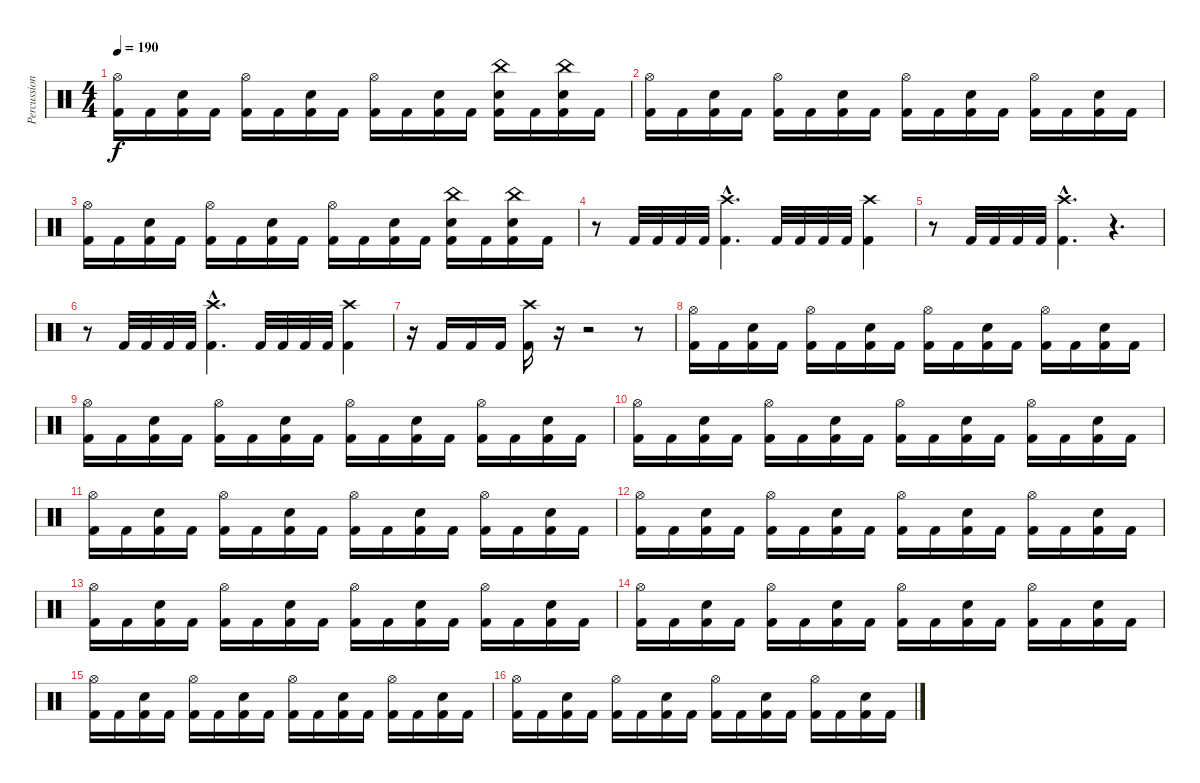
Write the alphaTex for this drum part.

\track ("Percussion" "Percussion") {instrument percussion}
\staff {score}
\articulation defaults
\ts (4 4)
\tempo 190
\clef neutral
\ks c
("Hi-Hat (open)" "Kick (hit) 2").16{dy f} "Kick (hit) 2".16 ("Snare (hit) 2" "Kick (hit) 2").16 "Kick (hit) 2".16 ("Hi-Hat (open)" "Kick (hit) 2").16 "Kick (hit) 2".16 ("Snare (hit) 2" "Kick (hit) 2").16 "Kick (hit) 2".16 ("Hi-Hat (open)" "Kick (hit) 2").16 "Kick (hit) 2".16 ("Snare (hit) 2" "Kick (hit) 2").16 "Kick (hit) 2".16 ("China (hit)" "Snare (hit) 2" "Kick (hit) 2").16 "Kick (hit) 2".16 ("China (hit)" "Snare (hit) 2" "Kick (hit) 2").16 "Kick (hit) 2".16 |
("Hi-Hat (open)" "Kick (hit) 2").16 "Kick (hit) 2".16 ("Snare (hit) 2" "Kick (hit) 2").16 "Kick (hit) 2".16 ("Hi-Hat (open)" "Kick (hit) 2").16 "Kick (hit) 2".16 ("Snare (hit) 2" "Kick (hit) 2").16 "Kick (hit) 2".16 ("Hi-Hat (open)" "Kick (hit) 2").16 "Kick (hit) 2".16 ("Snare (hit) 2" "Kick (hit) 2").16 "Kick (hit) 2".16 ("Hi-Hat (open)" "Kick (hit) 2").16 "Kick (hit) 2".16 ("Snare (hit) 2" "Kick (hit) 2").16 "Kick (hit) 2".16 |
("Hi-Hat (open)" "Kick (hit) 2").16 "Kick (hit) 2".16 ("Snare (hit) 2" "Kick (hit) 2").16 "Kick (hit) 2".16 ("Hi-Hat (open)" "Kick (hit) 2").16 "Kick (hit) 2".16 ("Snare (hit) 2" "Kick (hit) 2").16 "Kick (hit) 2".16 ("Hi-Hat (open)" "Kick (hit) 2").16 "Kick (hit) 2".16 ("Snare (hit) 2" "Kick (hit) 2").16 "Kick (hit) 2".16 ("China (hit)" "Snare (hit) 2" "Kick (hit) 2").16 "Kick (hit) 2".16 ("China (hit)" "Snare (hit) 2" "Kick (hit) 2").16 "Kick (hit) 2".16 |
r.8 "Kick (hit) 2".32 "Kick (hit) 2".32 "Kick (hit) 2".32 "Kick (hit) 2".32 ("Crash high (hit)"{hac} "Kick (hit) 2"{hac}).4{d} "Kick (hit) 2".32 "Kick (hit) 2".32 "Kick (hit) 2".32 "Kick (hit) 2".32 ("Crash high (hit)" "Kick (hit) 2").4 |
r.8 "Kick (hit) 2".32 "Kick (hit) 2".32 "Kick (hit) 2".32 "Kick (hit) 2".32 ("Crash high (hit)"{hac} "Kick (hit) 2"{hac}).4{d} r.4{d} |
r.8 "Kick (hit) 2".32 "Kick (hit) 2".32 "Kick (hit) 2".32 "Kick (hit) 2".32 ("Crash high (hit)"{hac} "Kick (hit) 2"{hac}).4{d} "Kick (hit) 2".32 "Kick (hit) 2".32 "Kick (hit) 2".32 "Kick (hit) 2".32 ("Crash high (hit)" "Kick (hit) 2").4 |
r.16 "Kick (hit) 2".16 "Kick (hit) 2".16 "Kick (hit) 2".16 ("Crash high (hit)" "Kick (hit) 2").16 r.16 r.2 r.8 |
("Hi-Hat (open)" "Kick (hit) 2").16 "Kick (hit) 2".16 ("Snare (hit) 2" "Kick (hit) 2").16 "Kick (hit) 2".16 ("Hi-Hat (open)" "Kick (hit) 2").16 "Kick (hit) 2".16 ("Snare (hit) 2" "Kick (hit) 2").16 "Kick (hit) 2".16 ("Hi-Hat (open)" "Kick (hit) 2").16 "Kick (hit) 2".16 ("Snare (hit) 2" "Kick (hit) 2").16 "Kick (hit) 2".16 ("Hi-Hat (open)" "Kick (hit) 2").16 "Kick (hit) 2".16 ("Snare (hit) 2" "Kick (hit) 2").16 "Kick (hit) 2".16 |
("Hi-Hat (open)" "Kick (hit) 2").16 "Kick (hit) 2".16 ("Snare (hit) 2" "Kick (hit) 2").16 "Kick (hit) 2".16 ("Hi-Hat (open)" "Kick (hit) 2").16 "Kick (hit) 2".16 ("Snare (hit) 2" "Kick (hit) 2").16 "Kick (hit) 2".16 ("Hi-Hat (open)" "Kick (hit) 2").16 "Kick (hit) 2".16 ("Snare (hit) 2" "Kick (hit) 2").16 "Kick (hit) 2".16 ("Hi-Hat (open)" "Kick (hit) 2").16 "Kick (hit) 2".16 ("Snare (hit) 2" "Kick (hit) 2").16 "Kick (hit) 2".16 |
("Hi-Hat (open)" "Kick (hit) 2").16 "Kick (hit) 2".16 ("Snare (hit) 2" "Kick (hit) 2").16 "Kick (hit) 2".16 ("Hi-Hat (open)" "Kick (hit) 2").16 "Kick (hit) 2".16 ("Snare (hit) 2" "Kick (hit) 2").16 "Kick (hit) 2".16 ("Hi-Hat (open)" "Kick (hit) 2").16 "Kick (hit) 2".16 ("Snare (hit) 2" "Kick (hit) 2").16 "Kick (hit) 2".16 ("Hi-Hat (open)" "Kick (hit) 2").16 "Kick (hit) 2".16 ("Snare (hit) 2" "Kick (hit) 2").16 "Kick (hit) 2".16 |
("Hi-Hat (open)" "Kick (hit) 2").16 "Kick (hit) 2".16 ("Snare (hit) 2" "Kick (hit) 2").16 "Kick (hit) 2".16 ("Hi-Hat (open)" "Kick (hit) 2").16 "Kick (hit) 2".16 ("Snare (hit) 2" "Kick (hit) 2").16 "Kick (hit) 2".16 ("Hi-Hat (open)" "Kick (hit) 2").16 "Kick (hit) 2".16 ("Snare (hit) 2" "Kick (hit) 2").16 "Kick (hit) 2".16 ("Hi-Hat (open)" "Kick (hit) 2").16 "Kick (hit) 2".16 ("Snare (hit) 2" "Kick (hit) 2").16 "Kick (hit) 2".16 |
("Hi-Hat (open)" "Kick (hit) 2").16 "Kick (hit) 2".16 ("Snare (hit) 2" "Kick (hit) 2").16 "Kick (hit) 2".16 ("Hi-Hat (open)" "Kick (hit) 2").16 "Kick (hit) 2".16 ("Snare (hit) 2" "Kick (hit) 2").16 "Kick (hit) 2".16 ("Hi-Hat (open)" "Kick (hit) 2").16 "Kick (hit) 2".16 ("Snare (hit) 2" "Kick (hit) 2").16 "Kick (hit) 2".16 ("Hi-Hat (open)" "Kick (hit) 2").16 "Kick (hit) 2".16 ("Snare (hit) 2" "Kick (hit) 2").16 "Kick (hit) 2".16 |
("Hi-Hat (open)" "Kick (hit) 2").16 "Kick (hit) 2".16 ("Snare (hit) 2" "Kick (hit) 2").16 "Kick (hit) 2".16 ("Hi-Hat (open)" "Kick (hit) 2").16 "Kick (hit) 2".16 ("Snare (hit) 2" "Kick (hit) 2").16 "Kick (hit) 2".16 ("Hi-Hat (open)" "Kick (hit) 2").16 "Kick (hit) 2".16 ("Snare (hit) 2" "Kick (hit) 2").16 "Kick (hit) 2".16 ("Hi-Hat (open)" "Kick (hit) 2").16 "Kick (hit) 2".16 ("Snare (hit) 2" "Kick (hit) 2").16 "Kick (hit) 2".16 |
("Hi-Hat (open)" "Kick (hit) 2").16 "Kick (hit) 2".16 ("Snare (hit) 2" "Kick (hit) 2").16 "Kick (hit) 2".16 ("Hi-Hat (open)" "Kick (hit) 2").16 "Kick (hit) 2".16 ("Snare (hit) 2" "Kick (hit) 2").16 "Kick (hit) 2".16 ("Hi-Hat (open)" "Kick (hit) 2").16 "Kick (hit) 2".16 ("Snare (hit) 2" "Kick (hit) 2").16 "Kick (hit) 2".16 ("Hi-Hat (open)" "Kick (hit) 2").16 "Kick (hit) 2".16 ("Snare (hit) 2" "Kick (hit) 2").16 "Kick (hit) 2".16 |
("Hi-Hat (open)" "Kick (hit) 2").16 "Kick (hit) 2".16 ("Snare (hit) 2" "Kick (hit) 2").16 "Kick (hit) 2".16 ("Hi-Hat (open)" "Kick (hit) 2").16 "Kick (hit) 2".16 ("Snare (hit) 2" "Kick (hit) 2").16 "Kick (hit) 2".16 ("Hi-Hat (open)" "Kick (hit) 2").16 "Kick (hit) 2".16 ("Snare (hit) 2" "Kick (hit) 2").16 "Kick (hit) 2".16 ("Hi-Hat (open)" "Kick (hit) 2").16 "Kick (hit) 2".16 ("Snare (hit) 2" "Kick (hit) 2").16 "Kick (hit) 2".16 |
("Hi-Hat (open)" "Kick (hit) 2").16 "Kick (hit) 2".16 ("Snare (hit) 2" "Kick (hit) 2").16 "Kick (hit) 2".16 ("Hi-Hat (open)" "Kick (hit) 2").16 "Kick (hit) 2".16 ("Snare (hit) 2" "Kick (hit) 2").16 "Kick (hit) 2".16 ("Hi-Hat (open)" "Kick (hit) 2").16 "Kick (hit) 2".16 ("Snare (hit) 2" "Kick (hit) 2").16 "Kick (hit) 2".16 ("Hi-Hat (open)" "Kick (hit) 2").16 "Kick (hit) 2".16 ("Snare (hit) 2" "Kick (hit) 2").16 "Kick (hit) 2".16
